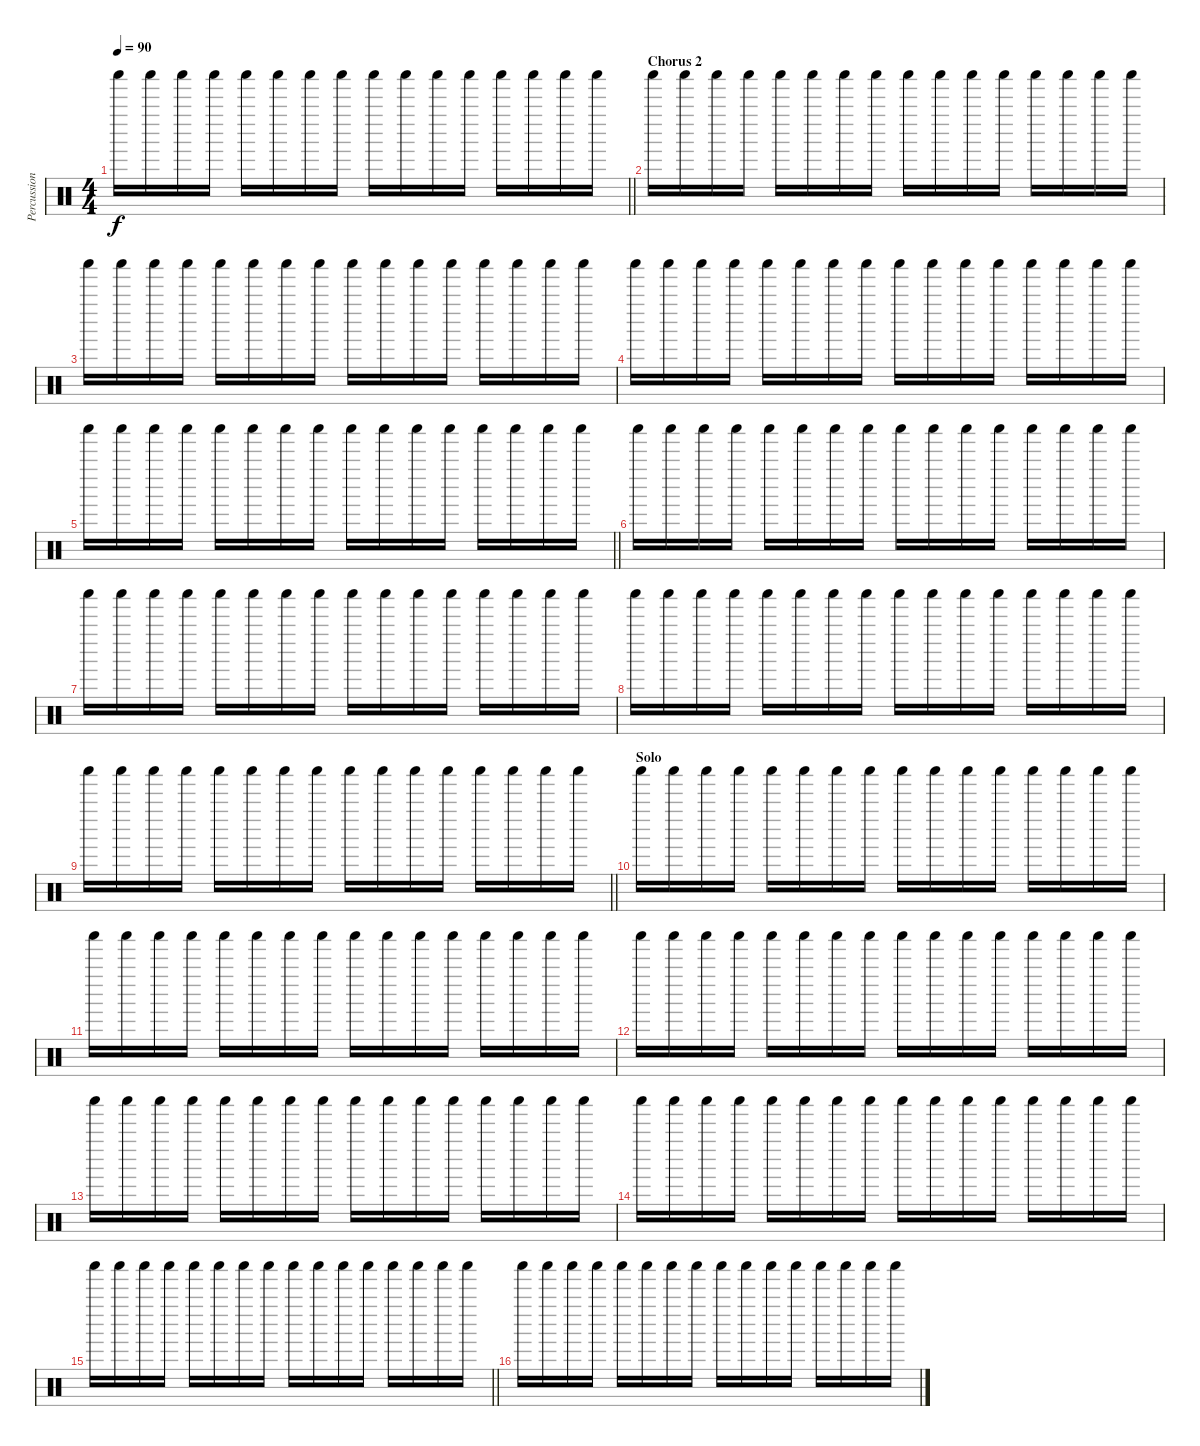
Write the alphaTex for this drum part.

\track ("Percussion" "Percussion") {instrument percussion}
\staff {score}
\articulation defaults
\ts (4 4)
\tempo 90
\clef neutral
\barLineRight lightlight
\ks c "Shaker (hit)".16{dy f} "Shaker (hit)".16 "Shaker (hit)".16 "Shaker (hit)".16 "Shaker (hit)".16 "Shaker (hit)".16 "Shaker (hit)".16 "Shaker (hit)".16 "Shaker (hit)".16 "Shaker (hit)".16 "Shaker (hit)".16 "Shaker (hit)".16 "Shaker (hit)".16 "Shaker (hit)".16 "Shaker (hit)".16 "Shaker (hit)".16
|
\section ("" "Chorus 2")
"Shaker (hit)".16 "Shaker (hit)".16 "Shaker (hit)".16 "Shaker (hit)".16 "Shaker (hit)".16 "Shaker (hit)".16 "Shaker (hit)".16 "Shaker (hit)".16 "Shaker (hit)".16 "Shaker (hit)".16 "Shaker (hit)".16 "Shaker (hit)".16 "Shaker (hit)".16 "Shaker (hit)".16 "Shaker (hit)".16 "Shaker (hit)".16 |
"Shaker (hit)".16 "Shaker (hit)".16 "Shaker (hit)".16 "Shaker (hit)".16 "Shaker (hit)".16 "Shaker (hit)".16 "Shaker (hit)".16 "Shaker (hit)".16 "Shaker (hit)".16 "Shaker (hit)".16 "Shaker (hit)".16 "Shaker (hit)".16 "Shaker (hit)".16 "Shaker (hit)".16 "Shaker (hit)".16 "Shaker (hit)".16 |
"Shaker (hit)".16 "Shaker (hit)".16 "Shaker (hit)".16 "Shaker (hit)".16 "Shaker (hit)".16 "Shaker (hit)".16 "Shaker (hit)".16 "Shaker (hit)".16 "Shaker (hit)".16 "Shaker (hit)".16 "Shaker (hit)".16 "Shaker (hit)".16 "Shaker (hit)".16 "Shaker (hit)".16 "Shaker (hit)".16 "Shaker (hit)".16 |
\barLineRight lightlight "Shaker (hit)".16 "Shaker (hit)".16 "Shaker (hit)".16 "Shaker (hit)".16 "Shaker (hit)".16 "Shaker (hit)".16 "Shaker (hit)".16 "Shaker (hit)".16 "Shaker (hit)".16 "Shaker (hit)".16 "Shaker (hit)".16 "Shaker (hit)".16 "Shaker (hit)".16 "Shaker (hit)".16 "Shaker (hit)".16 "Shaker (hit)".16
|
"Shaker (hit)".16 "Shaker (hit)".16 "Shaker (hit)".16 "Shaker (hit)".16 "Shaker (hit)".16 "Shaker (hit)".16 "Shaker (hit)".16 "Shaker (hit)".16 "Shaker (hit)".16 "Shaker (hit)".16 "Shaker (hit)".16 "Shaker (hit)".16 "Shaker (hit)".16 "Shaker (hit)".16 "Shaker (hit)".16 "Shaker (hit)".16 |
"Shaker (hit)".16 "Shaker (hit)".16 "Shaker (hit)".16 "Shaker (hit)".16 "Shaker (hit)".16 "Shaker (hit)".16 "Shaker (hit)".16 "Shaker (hit)".16 "Shaker (hit)".16 "Shaker (hit)".16 "Shaker (hit)".16 "Shaker (hit)".16 "Shaker (hit)".16 "Shaker (hit)".16 "Shaker (hit)".16 "Shaker (hit)".16 |
"Shaker (hit)".16 "Shaker (hit)".16 "Shaker (hit)".16 "Shaker (hit)".16 "Shaker (hit)".16 "Shaker (hit)".16 "Shaker (hit)".16 "Shaker (hit)".16 "Shaker (hit)".16 "Shaker (hit)".16 "Shaker (hit)".16 "Shaker (hit)".16 "Shaker (hit)".16 "Shaker (hit)".16 "Shaker (hit)".16 "Shaker (hit)".16 |
\barLineRight lightlight "Shaker (hit)".16 "Shaker (hit)".16 "Shaker (hit)".16 "Shaker (hit)".16 "Shaker (hit)".16 "Shaker (hit)".16 "Shaker (hit)".16 "Shaker (hit)".16 "Shaker (hit)".16 "Shaker (hit)".16 "Shaker (hit)".16 "Shaker (hit)".16 "Shaker (hit)".16 "Shaker (hit)".16 "Shaker (hit)".16 "Shaker (hit)".16
|
\section ("" "Solo")
"Shaker (hit)".16 "Shaker (hit)".16 "Shaker (hit)".16 "Shaker (hit)".16 "Shaker (hit)".16 "Shaker (hit)".16 "Shaker (hit)".16 "Shaker (hit)".16 "Shaker (hit)".16 "Shaker (hit)".16 "Shaker (hit)".16 "Shaker (hit)".16 "Shaker (hit)".16 "Shaker (hit)".16 "Shaker (hit)".16 "Shaker (hit)".16 |
"Shaker (hit)".16 "Shaker (hit)".16 "Shaker (hit)".16 "Shaker (hit)".16 "Shaker (hit)".16 "Shaker (hit)".16 "Shaker (hit)".16 "Shaker (hit)".16 "Shaker (hit)".16 "Shaker (hit)".16 "Shaker (hit)".16 "Shaker (hit)".16 "Shaker (hit)".16 "Shaker (hit)".16 "Shaker (hit)".16 "Shaker (hit)".16 |
"Shaker (hit)".16 "Shaker (hit)".16 "Shaker (hit)".16 "Shaker (hit)".16 "Shaker (hit)".16 "Shaker (hit)".16 "Shaker (hit)".16 "Shaker (hit)".16 "Shaker (hit)".16 "Shaker (hit)".16 "Shaker (hit)".16 "Shaker (hit)".16 "Shaker (hit)".16 "Shaker (hit)".16 "Shaker (hit)".16 "Shaker (hit)".16 |
"Shaker (hit)".16 "Shaker (hit)".16 "Shaker (hit)".16 "Shaker (hit)".16 "Shaker (hit)".16 "Shaker (hit)".16 "Shaker (hit)".16 "Shaker (hit)".16 "Shaker (hit)".16 "Shaker (hit)".16 "Shaker (hit)".16 "Shaker (hit)".16 "Shaker (hit)".16 "Shaker (hit)".16 "Shaker (hit)".16 "Shaker (hit)".16 |
"Shaker (hit)".16 "Shaker (hit)".16 "Shaker (hit)".16 "Shaker (hit)".16 "Shaker (hit)".16 "Shaker (hit)".16 "Shaker (hit)".16 "Shaker (hit)".16 "Shaker (hit)".16 "Shaker (hit)".16 "Shaker (hit)".16 "Shaker (hit)".16 "Shaker (hit)".16 "Shaker (hit)".16 "Shaker (hit)".16 "Shaker (hit)".16 |
\barLineRight lightlight "Shaker (hit)".16 "Shaker (hit)".16 "Shaker (hit)".16 "Shaker (hit)".16 "Shaker (hit)".16 "Shaker (hit)".16 "Shaker (hit)".16 "Shaker (hit)".16 "Shaker (hit)".16 "Shaker (hit)".16 "Shaker (hit)".16 "Shaker (hit)".16 "Shaker (hit)".16 "Shaker (hit)".16 "Shaker (hit)".16 "Shaker (hit)".16
|
"Shaker (hit)".16 "Shaker (hit)".16 "Shaker (hit)".16 "Shaker (hit)".16 "Shaker (hit)".16 "Shaker (hit)".16 "Shaker (hit)".16 "Shaker (hit)".16 "Shaker (hit)".16 "Shaker (hit)".16 "Shaker (hit)".16 "Shaker (hit)".16 "Shaker (hit)".16 "Shaker (hit)".16 "Shaker (hit)".16 "Shaker (hit)".16
